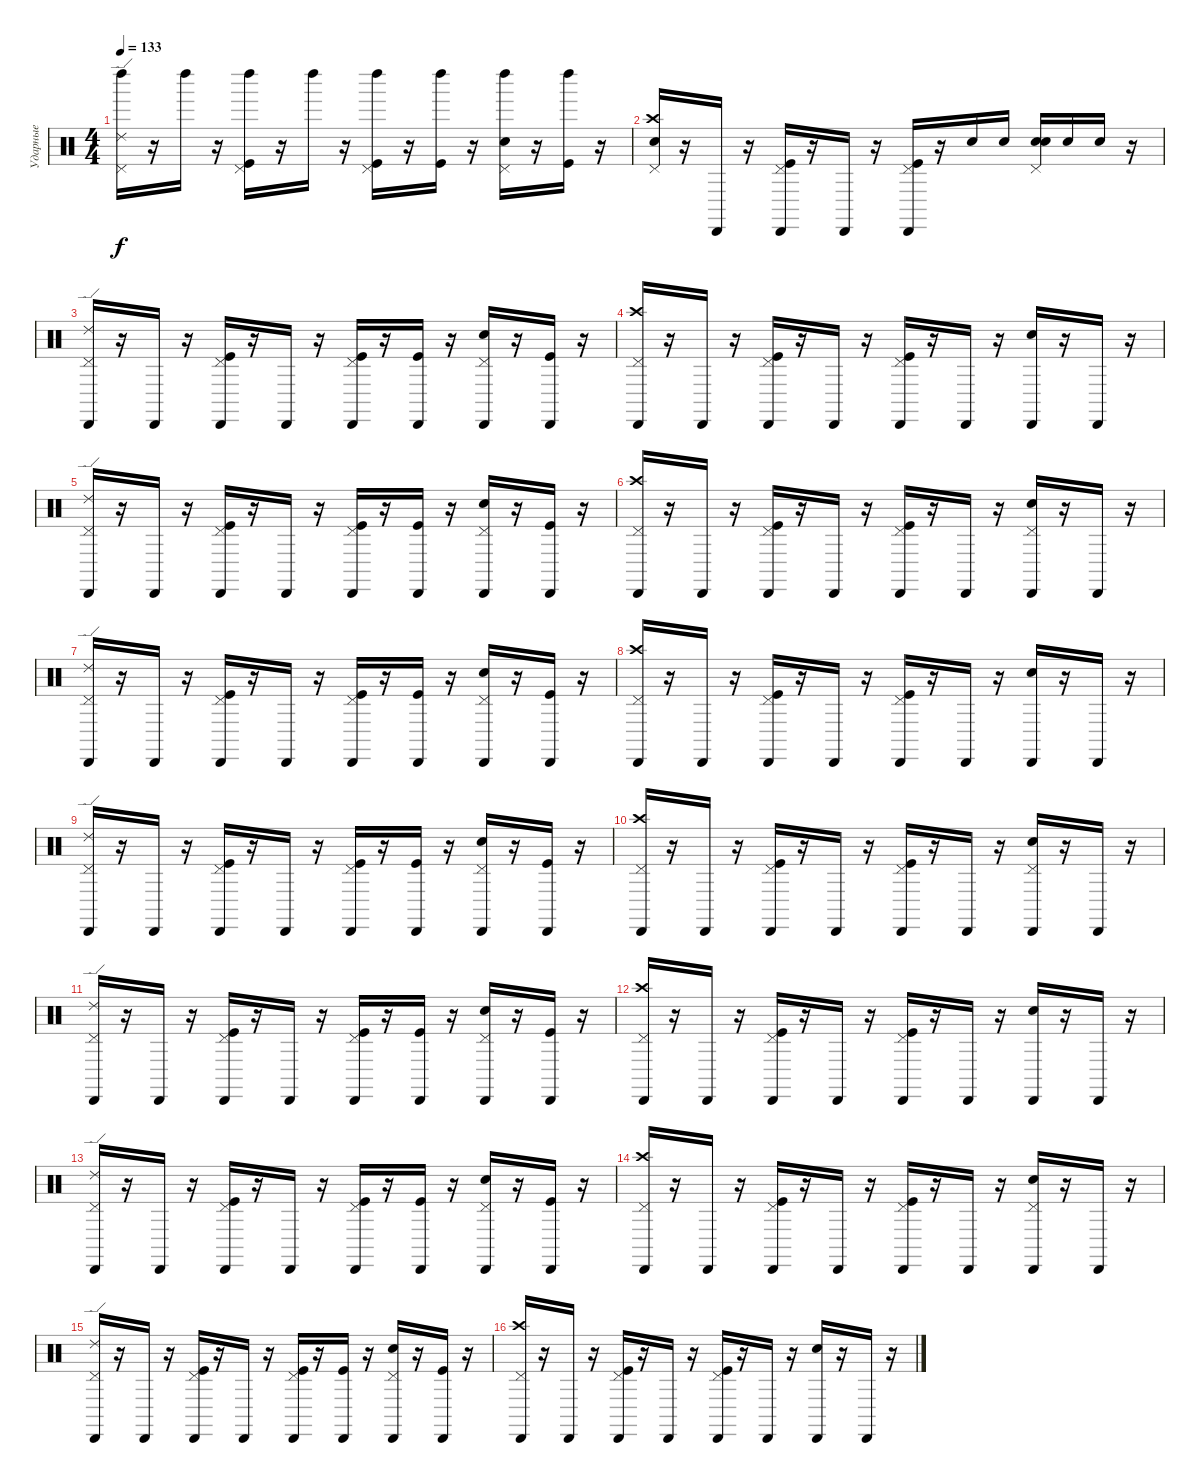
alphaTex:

\track ("Ударные" "Ударные") {instrument percussion}
\staff {score}
\articulation defaults
\ts (4 4)
\tempo 133
\clef neutral
\ks c
("Left Maraca (hit)" "Pedal Hi-Hat (hit)" "Ride (edge) 2").16{dy f} r.16 "Left Maraca (hit)".16 r.16 ("Left Maraca (hit)" "Pedal Hi-Hat (hit)" "Kick (hit)").16 r.16 "Left Maraca (hit)".16 r.16 ("Left Maraca (hit)" "Pedal Hi-Hat (hit)" "Kick (hit)").16 r.16 ("Left Maraca (hit)" "Kick (hit)").16 r.16 ("Left Maraca (hit)" "Pedal Hi-Hat (hit)" "Snare (hit) 2").16 r.16 ("Left Maraca (hit)" "Kick (hit)").16 r.16 |
("Snare (hit)" "Pedal Hi-Hat (hit)" "Crash high (hit)").16 r.16 "Cabasa (hit)".16 r.16 ("Cabasa (hit)" "Pedal Hi-Hat (hit)" "Kick (hit)").16 r.16 "Cabasa (hit)".16 r.16 ("Cabasa (hit)" "Pedal Hi-Hat (hit)" "Kick (hit)").16 r.16 "Snare (hit) 2".16 "Snare (hit) 2".16 ("Snare (hit) 2" "Pedal Hi-Hat (hit)" "Electric Snare (hit)").16 "Snare (hit) 2".16 "Snare (hit) 2".16 r.16 |
("Cabasa (hit)" "Pedal Hi-Hat (hit)" "Ride (edge) 2").16 r.16 "Cabasa (hit)".16 r.16 ("Cabasa (hit)" "Pedal Hi-Hat (hit)" "Kick (hit)").16 r.16 "Cabasa (hit)".16 r.16 ("Cabasa (hit)" "Pedal Hi-Hat (hit)" "Kick (hit)").16 r.16 ("Cabasa (hit)" "Kick (hit)").16 r.16 ("Cabasa (hit)" "Pedal Hi-Hat (hit)" "Snare (hit) 2").16 r.16 ("Cabasa (hit)" "Kick (hit)").16 r.16 |
("Cabasa (hit)" "Pedal Hi-Hat (hit)" "Crash high (hit)").16 r.16 "Cabasa (hit)".16 r.16 ("Cabasa (hit)" "Pedal Hi-Hat (hit)" "Kick (hit)").16 r.16 "Cabasa (hit)".16 r.16 ("Cabasa (hit)" "Pedal Hi-Hat (hit)" "Kick (hit)").16 r.16 "Cabasa (hit)".16 r.16 ("Cabasa (hit)" "Electric Snare (hit)").16 r.16 "Cabasa (hit)".16 r.16 |
("Cabasa (hit)" "Pedal Hi-Hat (hit)" "Ride (edge) 2").16 r.16 "Cabasa (hit)".16 r.16 ("Cabasa (hit)" "Pedal Hi-Hat (hit)" "Kick (hit)").16 r.16 "Cabasa (hit)".16 r.16 ("Cabasa (hit)" "Pedal Hi-Hat (hit)" "Kick (hit)").16 r.16 ("Cabasa (hit)" "Kick (hit)").16 r.16 ("Cabasa (hit)" "Pedal Hi-Hat (hit)" "Snare (hit) 2").16 r.16 ("Cabasa (hit)" "Kick (hit)").16 r.16 |
("Cabasa (hit)" "Pedal Hi-Hat (hit)" "Crash high (hit)").16 r.16 "Cabasa (hit)".16 r.16 ("Cabasa (hit)" "Pedal Hi-Hat (hit)" "Kick (hit)").16 r.16 "Cabasa (hit)".16 r.16 ("Cabasa (hit)" "Pedal Hi-Hat (hit)" "Kick (hit)").16 r.16 "Cabasa (hit)".16 r.16 ("Cabasa (hit)" "Pedal Hi-Hat (hit)" "Electric Snare (hit)").16 r.16 "Cabasa (hit)".16 r.16 |
("Cabasa (hit)" "Pedal Hi-Hat (hit)" "Ride (edge) 2").16 r.16 "Cabasa (hit)".16 r.16 ("Cabasa (hit)" "Pedal Hi-Hat (hit)" "Kick (hit)").16 r.16 "Cabasa (hit)".16 r.16 ("Cabasa (hit)" "Pedal Hi-Hat (hit)" "Kick (hit)").16 r.16 ("Cabasa (hit)" "Kick (hit)").16 r.16 ("Cabasa (hit)" "Pedal Hi-Hat (hit)" "Snare (hit) 2").16 r.16 ("Cabasa (hit)" "Kick (hit)").16 r.16 |
("Cabasa (hit)" "Pedal Hi-Hat (hit)" "Crash high (hit)").16 r.16 "Cabasa (hit)".16 r.16 ("Cabasa (hit)" "Pedal Hi-Hat (hit)" "Kick (hit)").16 r.16 "Cabasa (hit)".16 r.16 ("Cabasa (hit)" "Pedal Hi-Hat (hit)" "Kick (hit)").16 r.16 "Cabasa (hit)".16 r.16 ("Cabasa (hit)" "Electric Snare (hit)").16 r.16 "Cabasa (hit)".16 r.16 |
("Cabasa (hit)" "Pedal Hi-Hat (hit)" "Ride (edge) 2").16 r.16 "Cabasa (hit)".16 r.16 ("Cabasa (hit)" "Pedal Hi-Hat (hit)" "Kick (hit)").16 r.16 "Cabasa (hit)".16 r.16 ("Cabasa (hit)" "Pedal Hi-Hat (hit)" "Kick (hit)").16 r.16 ("Cabasa (hit)" "Kick (hit)").16 r.16 ("Cabasa (hit)" "Pedal Hi-Hat (hit)" "Snare (hit) 2").16 r.16 ("Cabasa (hit)" "Kick (hit)").16 r.16 |
("Cabasa (hit)" "Pedal Hi-Hat (hit)" "Crash high (hit)").16 r.16 "Cabasa (hit)".16 r.16 ("Cabasa (hit)" "Pedal Hi-Hat (hit)" "Kick (hit)").16 r.16 "Cabasa (hit)".16 r.16 ("Cabasa (hit)" "Pedal Hi-Hat (hit)" "Kick (hit)").16 r.16 "Cabasa (hit)".16 r.16 ("Cabasa (hit)" "Pedal Hi-Hat (hit)" "Electric Snare (hit)").16 r.16 "Cabasa (hit)".16 r.16 |
("Cabasa (hit)" "Pedal Hi-Hat (hit)" "Ride (edge) 2").16 r.16 "Cabasa (hit)".16 r.16 ("Cabasa (hit)" "Pedal Hi-Hat (hit)" "Kick (hit)").16 r.16 "Cabasa (hit)".16 r.16 ("Cabasa (hit)" "Pedal Hi-Hat (hit)" "Kick (hit)").16 r.16 ("Cabasa (hit)" "Kick (hit)").16 r.16 ("Cabasa (hit)" "Pedal Hi-Hat (hit)" "Snare (hit) 2").16 r.16 ("Cabasa (hit)" "Kick (hit)").16 r.16 |
("Cabasa (hit)" "Pedal Hi-Hat (hit)" "Crash high (hit)").16 r.16 "Cabasa (hit)".16 r.16 ("Cabasa (hit)" "Pedal Hi-Hat (hit)" "Kick (hit)").16 r.16 "Cabasa (hit)".16 r.16 ("Cabasa (hit)" "Pedal Hi-Hat (hit)" "Kick (hit)").16 r.16 "Cabasa (hit)".16 r.16 ("Cabasa (hit)" "Electric Snare (hit)").16 r.16 "Cabasa (hit)".16 r.16 |
("Cabasa (hit)" "Pedal Hi-Hat (hit)" "Ride (edge) 2").16 r.16 "Cabasa (hit)".16 r.16 ("Cabasa (hit)" "Pedal Hi-Hat (hit)" "Kick (hit)").16 r.16 "Cabasa (hit)".16 r.16 ("Cabasa (hit)" "Pedal Hi-Hat (hit)" "Kick (hit)").16 r.16 ("Cabasa (hit)" "Kick (hit)").16 r.16 ("Cabasa (hit)" "Pedal Hi-Hat (hit)" "Snare (hit) 2").16 r.16 ("Cabasa (hit)" "Kick (hit)").16 r.16 |
("Cabasa (hit)" "Pedal Hi-Hat (hit)" "Crash high (hit)").16 r.16 "Cabasa (hit)".16 r.16 ("Cabasa (hit)" "Pedal Hi-Hat (hit)" "Kick (hit)").16 r.16 "Cabasa (hit)".16 r.16 ("Cabasa (hit)" "Pedal Hi-Hat (hit)" "Kick (hit)").16 r.16 "Cabasa (hit)".16 r.16 ("Cabasa (hit)" "Pedal Hi-Hat (hit)" "Electric Snare (hit)").16 r.16 "Cabasa (hit)".16 r.16 |
("Cabasa (hit)" "Pedal Hi-Hat (hit)" "Ride (edge) 2").16 r.16 "Cabasa (hit)".16 r.16 ("Cabasa (hit)" "Pedal Hi-Hat (hit)" "Kick (hit)").16 r.16 "Cabasa (hit)".16 r.16 ("Cabasa (hit)" "Pedal Hi-Hat (hit)" "Kick (hit)").16 r.16 ("Cabasa (hit)" "Kick (hit)").16 r.16 ("Cabasa (hit)" "Pedal Hi-Hat (hit)" "Snare (hit) 2").16 r.16 ("Cabasa (hit)" "Kick (hit)").16 r.16 |
("Cabasa (hit)" "Pedal Hi-Hat (hit)" "Crash high (hit)").16 r.16 "Cabasa (hit)".16 r.16 ("Cabasa (hit)" "Pedal Hi-Hat (hit)" "Kick (hit)").16 r.16 "Cabasa (hit)".16 r.16 ("Cabasa (hit)" "Pedal Hi-Hat (hit)" "Kick (hit)").16 r.16 "Cabasa (hit)".16 r.16 ("Cabasa (hit)" "Electric Snare (hit)").16 r.16 "Cabasa (hit)".16 r.16
